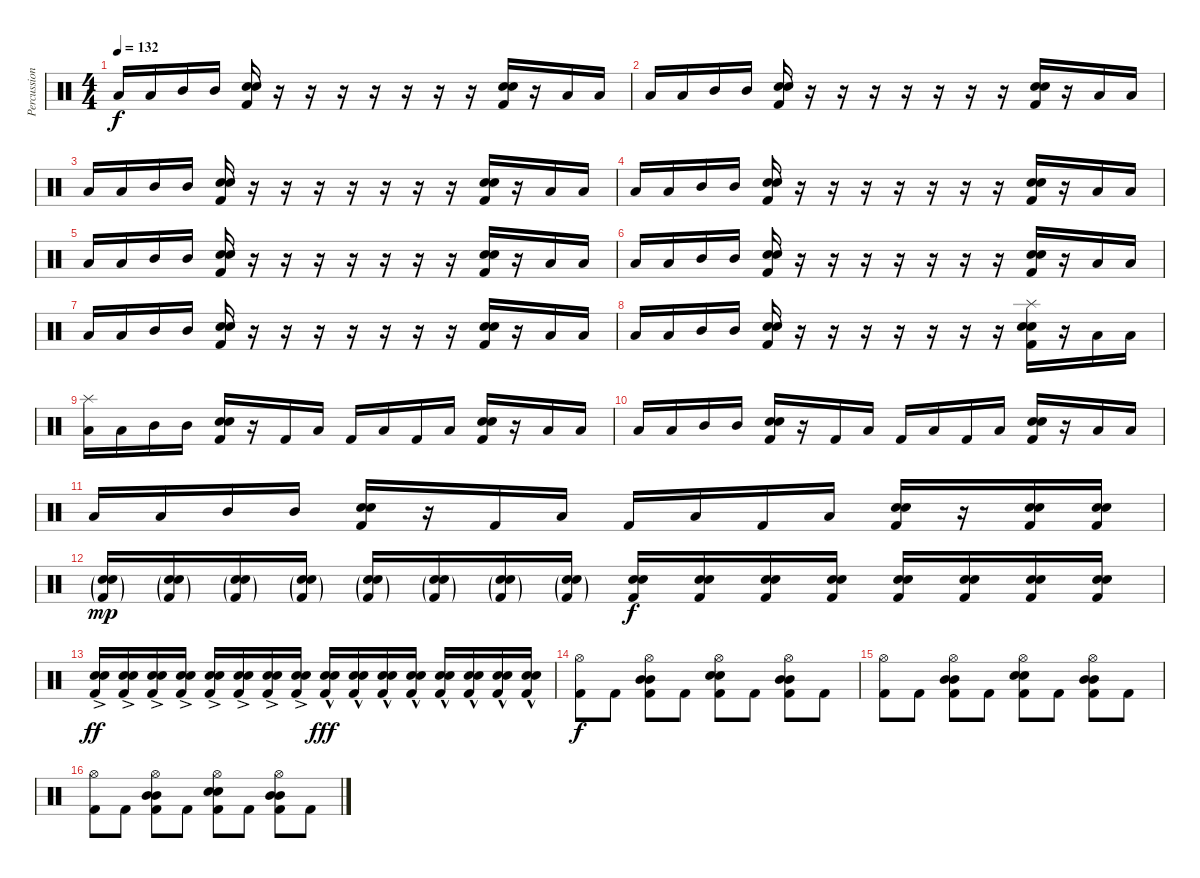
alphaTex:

\track ("Percussion" "Percussion") {instrument percussion}
\staff {score}
\articulation defaults
\ts (4 4)
\tempo 132
\clef neutral
\ks c "Low Tom (hit)".16{dy f} "Low Tom (hit)".16 "Mid Tom (hit)".16 "Mid Tom (hit)".16
("Electric Snare (hit)" "Snare (hit) 2" "Kick (hit) 2").16 r.16 r.16 r.16 r.16 r.16 r.16 r.16 ("Electric Snare (hit)" "Snare (hit) 2" "Kick (hit) 2").16 r.16 "Low Tom (hit)".16 "Low Tom (hit)".16 |
"Low Tom (hit)".16 "Low Tom (hit)".16 "Mid Tom (hit)".16 "Mid Tom (hit)".16 ("Electric Snare (hit)" "Snare (hit) 2" "Kick (hit) 2").16 r.16 r.16 r.16 r.16 r.16 r.16 r.16 ("Electric Snare (hit)" "Snare (hit) 2" "Kick (hit) 2").16 r.16 "Low Tom (hit)".16 "Low Tom (hit)".16 |
"Low Tom (hit)".16 "Low Tom (hit)".16 "Mid Tom (hit)".16 "Mid Tom (hit)".16 ("Electric Snare (hit)" "Snare (hit) 2" "Kick (hit) 2").16 r.16 r.16 r.16 r.16 r.16 r.16 r.16 ("Electric Snare (hit)" "Snare (hit) 2" "Kick (hit) 2").16 r.16 "Low Tom (hit)".16 "Low Tom (hit)".16 |
"Low Tom (hit)".16 "Low Tom (hit)".16 "Mid Tom (hit)".16 "Mid Tom (hit)".16 ("Electric Snare (hit)" "Snare (hit) 2" "Kick (hit) 2").16 r.16 r.16 r.16 r.16 r.16 r.16 r.16 ("Electric Snare (hit)" "Snare (hit) 2" "Kick (hit) 2").16 r.16 "Low Tom (hit)".16 "Low Tom (hit)".16 |
"Low Tom (hit)".16 "Low Tom (hit)".16 "Mid Tom (hit)".16 "Mid Tom (hit)".16 ("Electric Snare (hit)" "Snare (hit) 2" "Kick (hit) 2").16 r.16 r.16 r.16 r.16 r.16 r.16 r.16 ("Electric Snare (hit)" "Snare (hit) 2" "Kick (hit) 2").16 r.16 "Low Tom (hit)".16 "Low Tom (hit)".16 |
"Low Tom (hit)".16 "Low Tom (hit)".16 "Mid Tom (hit)".16 "Mid Tom (hit)".16 ("Electric Snare (hit)" "Snare (hit) 2" "Kick (hit) 2").16 r.16 r.16 r.16 r.16 r.16 r.16 r.16 ("Electric Snare (hit)" "Snare (hit) 2" "Kick (hit) 2").16 r.16 "Low Tom (hit)".16 "Low Tom (hit)".16 |
"Low Tom (hit)".16 "Low Tom (hit)".16 "Mid Tom (hit)".16 "Mid Tom (hit)".16 ("Electric Snare (hit)" "Snare (hit) 2" "Kick (hit) 2").16 r.16 r.16 r.16 r.16 r.16 r.16 r.16 ("Electric Snare (hit)" "Snare (hit) 2" "Kick (hit) 2").16 r.16 "Low Tom (hit)".16 "Low Tom (hit)".16 |
"Low Tom (hit)".16 "Low Tom (hit)".16 "Mid Tom (hit)".16 "Mid Tom (hit)".16 ("Electric Snare (hit)" "Snare (hit) 2" "Kick (hit) 2").16 r.16 r.16 r.16 r.16 r.16 r.16 r.16 ("Splash (hit)" "Electric Snare (hit)" "Snare (hit) 2" "Kick (hit) 2").16 r.16 "Low Tom (hit)".16 "Low Tom (hit)".16 |
("Splash (hit)" "Low Tom (hit)").16 "Low Tom (hit)".16 "Mid Tom (hit)".16 "Mid Tom (hit)".16 ("Electric Snare (hit)" "Snare (hit) 2" "Kick (hit) 2").16 r.16 "Kick (hit) 2".16 "Low Tom (hit)".16 "Kick (hit) 2".16 "Low Tom (hit)".16 "Kick (hit) 2".16 "Low Tom (hit)".16 ("Electric Snare (hit)" "Snare (hit) 2" "Kick (hit) 2").16 r.16 "Low Tom (hit)".16 "Low Tom (hit)".16 |
"Low Tom (hit)".16 "Low Tom (hit)".16 "Mid Tom (hit)".16 "Mid Tom (hit)".16 ("Electric Snare (hit)" "Snare (hit) 2" "Kick (hit) 2").16 r.16 "Kick (hit) 2".16 "Low Tom (hit)".16 "Kick (hit) 2".16 "Low Tom (hit)".16 "Kick (hit) 2".16 "Low Tom (hit)".16 ("Electric Snare (hit)" "Snare (hit) 2" "Kick (hit) 2").16 r.16 "Low Tom (hit)".16 "Low Tom (hit)".16 |
"Low Tom (hit)".16 "Low Tom (hit)".16 "Mid Tom (hit)".16 "Mid Tom (hit)".16 ("Electric Snare (hit)" "Snare (hit) 2" "Kick (hit) 2").16 r.16 "Kick (hit) 2".16 "Low Tom (hit)".16 "Kick (hit) 2".16 "Low Tom (hit)".16 "Kick (hit) 2".16 "Low Tom (hit)".16 ("Electric Snare (hit)" "Snare (hit) 2" "Kick (hit) 2").16 r.16 ("Electric Snare (hit)" "Snare (hit) 2" "Kick (hit) 2").16 ("Electric Snare (hit)" "Snare (hit) 2" "Kick (hit) 2").16 |
("Electric Snare (hit)"{g} "Snare (hit) 2"{g} "Kick (hit) 2"{g}).16{dy mp} ("Electric Snare (hit)"{g} "Snare (hit) 2"{g} "Kick (hit) 2"{g}).16 ("Electric Snare (hit)"{g} "Snare (hit) 2"{g} "Kick (hit) 2"{g}).16 ("Electric Snare (hit)"{g} "Snare (hit) 2"{g} "Kick (hit) 2"{g}).16 ("Electric Snare (hit)"{g} "Snare (hit) 2"{g} "Kick (hit) 2"{g}).16 ("Electric Snare (hit)"{g} "Snare (hit) 2"{g} "Kick (hit) 2"{g}).16 ("Electric Snare (hit)"{g} "Snare (hit) 2"{g} "Kick (hit) 2"{g}).16 ("Electric Snare (hit)"{g} "Snare (hit) 2"{g} "Kick (hit) 2"{g}).16 ("Electric Snare (hit)" "Snare (hit) 2" "Kick (hit) 2").16{dy f} ("Electric Snare (hit)" "Snare (hit) 2" "Kick (hit) 2").16 ("Electric Snare (hit)" "Snare (hit) 2" "Kick (hit) 2").16 ("Electric Snare (hit)" "Snare (hit) 2" "Kick (hit) 2").16 ("Electric Snare (hit)" "Snare (hit) 2" "Kick (hit) 2").16 ("Electric Snare (hit)" "Snare (hit) 2" "Kick (hit) 2").16 ("Electric Snare (hit)" "Snare (hit) 2" "Kick (hit) 2").16 ("Electric Snare (hit)" "Snare (hit) 2" "Kick (hit) 2").16 |
("Electric Snare (hit)"{ac} "Snare (hit) 2"{ac} "Kick (hit) 2"{ac}).16{dy ff} ("Electric Snare (hit)"{ac} "Snare (hit) 2"{ac} "Kick (hit) 2"{ac}).16 ("Electric Snare (hit)"{ac} "Snare (hit) 2"{ac} "Kick (hit) 2"{ac}).16 ("Electric Snare (hit)"{ac} "Snare (hit) 2"{ac} "Kick (hit) 2"{ac}).16 ("Electric Snare (hit)"{ac} "Snare (hit) 2"{ac} "Kick (hit) 2"{ac}).16 ("Electric Snare (hit)"{ac} "Snare (hit) 2"{ac} "Kick (hit) 2"{ac}).16 ("Electric Snare (hit)"{ac} "Snare (hit) 2"{ac} "Kick (hit) 2"{ac}).16 ("Electric Snare (hit)"{ac} "Snare (hit) 2"{ac} "Kick (hit) 2"{ac}).16 ("Electric Snare (hit)"{hac} "Snare (hit) 2"{hac} "Kick (hit) 2"{hac}).16{dy fff} ("Electric Snare (hit)"{hac} "Snare (hit) 2"{hac} "Kick (hit) 2"{hac}).16 ("Electric Snare (hit)"{hac} "Snare (hit) 2"{hac} "Kick (hit) 2"{hac}).16 ("Electric Snare (hit)"{hac} "Snare (hit) 2"{hac} "Kick (hit) 2"{hac}).16 ("Electric Snare (hit)"{hac} "Snare (hit) 2"{hac} "Kick (hit) 2"{hac}).16 ("Electric Snare (hit)"{hac} "Snare (hit) 2"{hac} "Kick (hit) 2"{hac}).16 ("Electric Snare (hit)"{hac} "Snare (hit) 2"{hac} "Kick (hit) 2"{hac}).16 ("Electric Snare (hit)"{hac} "Snare (hit) 2"{hac} "Kick (hit) 2"{hac}).16 |
("Hi-Hat (open)" "Kick (hit) 2").8{dy f} "Kick (hit) 2".8 ("Hi-Hat (open)" "Mid Tom (hit)" "Mid Tom (hit)" "Kick (hit) 2").8 "Kick (hit) 2".8 ("Hi-Hat (open)" "Snare (hit) 2" "Snare (hit) 2" "Kick (hit) 2").8 "Kick (hit) 2".8 ("Hi-Hat (open)" "Mid Tom (hit)" "Mid Tom (hit)" "Kick (hit) 2").8 "Kick (hit) 2".8 |
("Hi-Hat (open)" "Kick (hit) 2").8 "Kick (hit) 2".8 ("Hi-Hat (open)" "Mid Tom (hit)" "Mid Tom (hit)" "Kick (hit) 2").8 "Kick (hit) 2".8 ("Hi-Hat (open)" "Snare (hit) 2" "Snare (hit) 2" "Kick (hit) 2").8 "Kick (hit) 2".8 ("Hi-Hat (open)" "Mid Tom (hit)" "Mid Tom (hit)" "Kick (hit) 2").8 "Kick (hit) 2".8 |
("Hi-Hat (open)" "Kick (hit) 2").8 "Kick (hit) 2".8 ("Hi-Hat (open)" "Mid Tom (hit)" "Mid Tom (hit)" "Kick (hit) 2").8 "Kick (hit) 2".8 ("Hi-Hat (open)" "Snare (hit) 2" "Snare (hit) 2" "Kick (hit) 2").8 "Kick (hit) 2".8 ("Hi-Hat (open)" "Mid Tom (hit)" "Mid Tom (hit)" "Kick (hit) 2").8 "Kick (hit) 2".8
